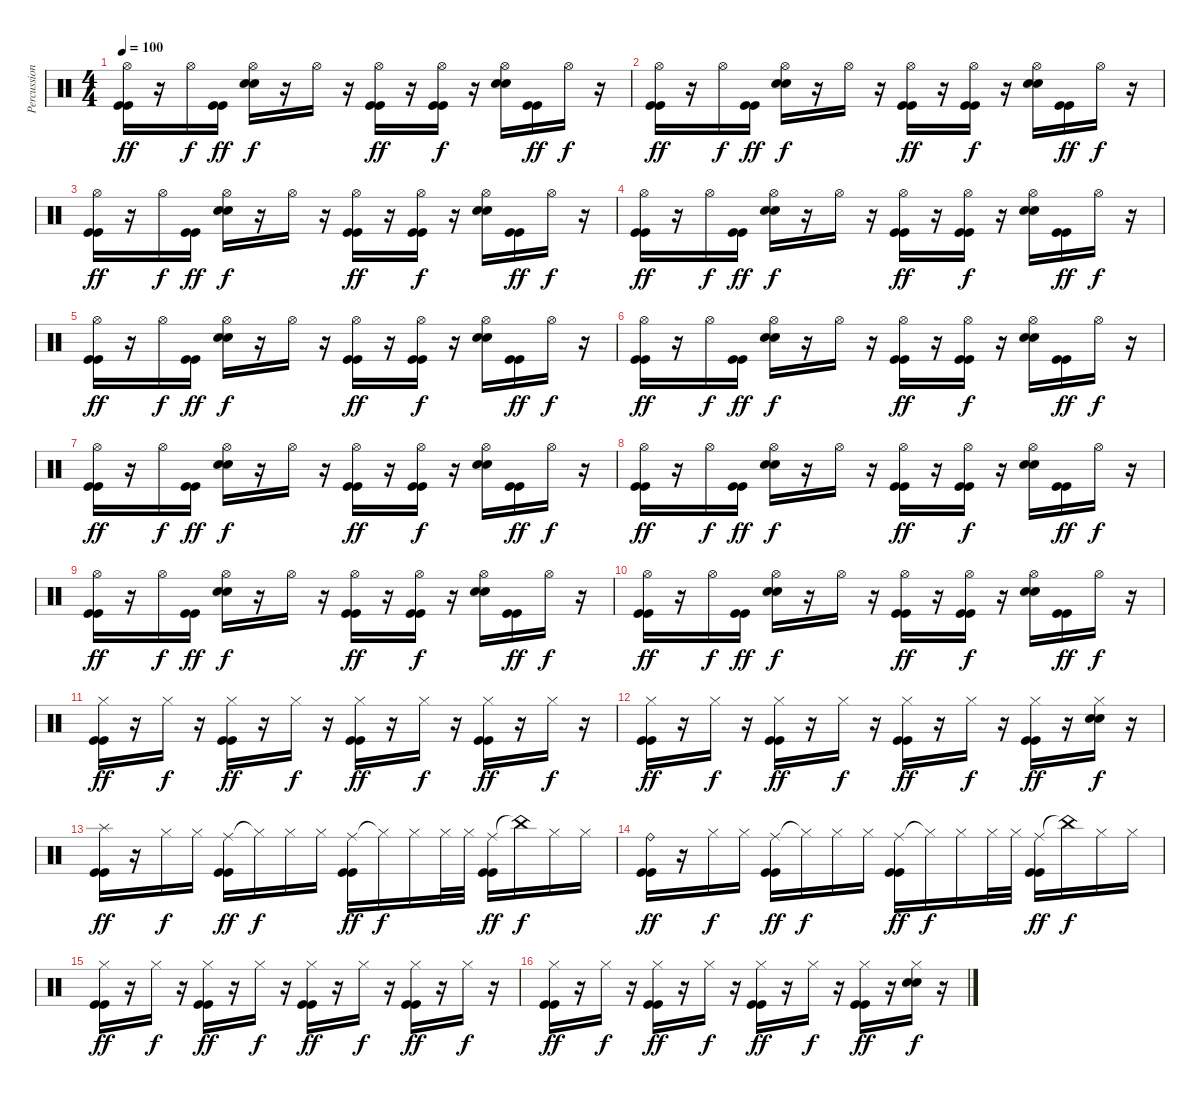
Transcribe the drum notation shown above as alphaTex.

\track ("Percussions" "Percussion") {instrument percussion}
\staff {score}
\articulation defaults
\ts (4 4)
\tempo 100
\clef neutral
\ks c
("Hi-Hat (open)" "Kick (hit)" "Kick (hit)").16{dy ff} r.16 "Hi-Hat (open)".16{dy f} ("Kick (hit)" "Kick (hit)").16{dy ff} ("Hi-Hat (open)" "Electric Snare (hit)" "Electric Snare (hit)").16{dy f} r.16 "Hi-Hat (open)".16 r.16 ("Hi-Hat (open)" "Kick (hit)" "Kick (hit)").16{dy ff} r.16 ("Hi-Hat (open)" "Kick (hit)" "Kick (hit)").16{dy f} r.16 ("Hi-Hat (open)" "Electric Snare (hit)" "Electric Snare (hit)").16 ("Kick (hit)" "Kick (hit)").16{dy ff} "Hi-Hat (open)".16{dy f} r.16 |
("Hi-Hat (open)" "Kick (hit)" "Kick (hit)").16{dy ff} r.16 "Hi-Hat (open)".16{dy f} ("Kick (hit)" "Kick (hit)").16{dy ff} ("Hi-Hat (open)" "Electric Snare (hit)" "Electric Snare (hit)").16{dy f} r.16 "Hi-Hat (open)".16 r.16 ("Hi-Hat (open)" "Kick (hit)" "Kick (hit)").16{dy ff} r.16 ("Hi-Hat (open)" "Kick (hit)" "Kick (hit)").16{dy f} r.16 ("Hi-Hat (open)" "Electric Snare (hit)" "Electric Snare (hit)").16 ("Kick (hit)" "Kick (hit)").16{dy ff} "Hi-Hat (open)".16{dy f} r.16 |
("Hi-Hat (open)" "Kick (hit)" "Kick (hit)").16{dy ff} r.16 "Hi-Hat (open)".16{dy f} ("Kick (hit)" "Kick (hit)").16{dy ff} ("Hi-Hat (open)" "Electric Snare (hit)" "Electric Snare (hit)").16{dy f} r.16 "Hi-Hat (open)".16 r.16 ("Hi-Hat (open)" "Kick (hit)" "Kick (hit)").16{dy ff} r.16 ("Hi-Hat (open)" "Kick (hit)" "Kick (hit)").16{dy f} r.16 ("Hi-Hat (open)" "Electric Snare (hit)" "Electric Snare (hit)").16 ("Kick (hit)" "Kick (hit)").16{dy ff} "Hi-Hat (open)".16{dy f} r.16 |
("Hi-Hat (open)" "Kick (hit)" "Kick (hit)").16{dy ff} r.16 "Hi-Hat (open)".16{dy f} ("Kick (hit)" "Kick (hit)").16{dy ff} ("Hi-Hat (open)" "Electric Snare (hit)" "Electric Snare (hit)").16{dy f} r.16 "Hi-Hat (open)".16 r.16 ("Hi-Hat (open)" "Kick (hit)" "Kick (hit)").16{dy ff} r.16 ("Hi-Hat (open)" "Kick (hit)" "Kick (hit)").16{dy f} r.16 ("Hi-Hat (open)" "Electric Snare (hit)" "Electric Snare (hit)").16 ("Kick (hit)" "Kick (hit)").16{dy ff} "Hi-Hat (open)".16{dy f} r.16 |
("Hi-Hat (open)" "Kick (hit)" "Kick (hit)").16{dy ff} r.16 "Hi-Hat (open)".16{dy f} ("Kick (hit)" "Kick (hit)").16{dy ff} ("Hi-Hat (open)" "Electric Snare (hit)" "Electric Snare (hit)").16{dy f} r.16 "Hi-Hat (open)".16 r.16 ("Hi-Hat (open)" "Kick (hit)" "Kick (hit)").16{dy ff} r.16 ("Hi-Hat (open)" "Kick (hit)" "Kick (hit)").16{dy f} r.16 ("Hi-Hat (open)" "Electric Snare (hit)" "Electric Snare (hit)").16 ("Kick (hit)" "Kick (hit)").16{dy ff} "Hi-Hat (open)".16{dy f} r.16 |
("Hi-Hat (open)" "Kick (hit)" "Kick (hit)").16{dy ff} r.16 "Hi-Hat (open)".16{dy f} ("Kick (hit)" "Kick (hit)").16{dy ff} ("Hi-Hat (open)" "Electric Snare (hit)" "Electric Snare (hit)").16{dy f} r.16 "Hi-Hat (open)".16 r.16 ("Hi-Hat (open)" "Kick (hit)" "Kick (hit)").16{dy ff} r.16 ("Hi-Hat (open)" "Kick (hit)" "Kick (hit)").16{dy f} r.16 ("Hi-Hat (open)" "Electric Snare (hit)" "Electric Snare (hit)").16 ("Kick (hit)" "Kick (hit)").16{dy ff} "Hi-Hat (open)".16{dy f} r.16 |
("Hi-Hat (open)" "Kick (hit)" "Kick (hit)").16{dy ff} r.16 "Hi-Hat (open)".16{dy f} ("Kick (hit)" "Kick (hit)").16{dy ff} ("Hi-Hat (open)" "Electric Snare (hit)" "Electric Snare (hit)").16{dy f} r.16 "Hi-Hat (open)".16 r.16 ("Hi-Hat (open)" "Kick (hit)" "Kick (hit)").16{dy ff} r.16 ("Hi-Hat (open)" "Kick (hit)" "Kick (hit)").16{dy f} r.16 ("Hi-Hat (open)" "Electric Snare (hit)" "Electric Snare (hit)").16 ("Kick (hit)" "Kick (hit)").16{dy ff} "Hi-Hat (open)".16{dy f} r.16 |
("Hi-Hat (open)" "Kick (hit)" "Kick (hit)").16{dy ff} r.16 "Hi-Hat (open)".16{dy f} ("Kick (hit)" "Kick (hit)").16{dy ff} ("Hi-Hat (open)" "Electric Snare (hit)" "Electric Snare (hit)").16{dy f} r.16 "Hi-Hat (open)".16 r.16 ("Hi-Hat (open)" "Kick (hit)" "Kick (hit)").16{dy ff} r.16 ("Hi-Hat (open)" "Kick (hit)" "Kick (hit)").16{dy f} r.16 ("Hi-Hat (open)" "Electric Snare (hit)" "Electric Snare (hit)").16 ("Kick (hit)" "Kick (hit)").16{dy ff} "Hi-Hat (open)".16{dy f} r.16 |
("Hi-Hat (open)" "Kick (hit)" "Kick (hit)").16{dy ff} r.16 "Hi-Hat (open)".16{dy f} ("Kick (hit)" "Kick (hit)").16{dy ff} ("Hi-Hat (open)" "Electric Snare (hit)" "Electric Snare (hit)").16{dy f} r.16 "Hi-Hat (open)".16 r.16 ("Hi-Hat (open)" "Kick (hit)" "Kick (hit)").16{dy ff} r.16 ("Hi-Hat (open)" "Kick (hit)" "Kick (hit)").16{dy f} r.16 ("Hi-Hat (open)" "Electric Snare (hit)" "Electric Snare (hit)").16 ("Kick (hit)" "Kick (hit)").16{dy ff} "Hi-Hat (open)".16{dy f} r.16 |
("Hi-Hat (open)" "Kick (hit)" "Kick (hit)").16{dy ff} r.16 "Hi-Hat (open)".16{dy f} ("Kick (hit)" "Kick (hit)").16{dy ff} ("Hi-Hat (open)" "Electric Snare (hit)" "Electric Snare (hit)").16{dy f} r.16 "Hi-Hat (open)".16 r.16 ("Hi-Hat (open)" "Kick (hit)" "Kick (hit)").16{dy ff} r.16 ("Hi-Hat (open)" "Kick (hit)" "Kick (hit)").16{dy f} r.16 ("Hi-Hat (open)" "Electric Snare (hit)" "Electric Snare (hit)").16 ("Kick (hit)" "Kick (hit)").16{dy ff} "Hi-Hat (open)".16{dy f} r.16 |
("Hi-Hat (closed)" "Kick (hit)" "Kick (hit)").16{dy ff} r.16 "Hi-Hat (closed)".16{dy f} r.16 ("Hi-Hat (closed)" "Kick (hit)" "Kick (hit)").16{dy ff} r.16 "Hi-Hat (closed)".16{dy f} r.16 ("Hi-Hat (closed)" "Kick (hit)" "Kick (hit)").16{dy ff} r.16 "Hi-Hat (closed)".16{dy f} r.16 ("Hi-Hat (closed)" "Kick (hit)" "Kick (hit)").16{dy ff} r.16 "Hi-Hat (closed)".16{dy f} r.16 |
("Hi-Hat (closed)" "Kick (hit)" "Kick (hit)").16{dy ff} r.16 "Hi-Hat (closed)".16{dy f} r.16 ("Hi-Hat (closed)" "Kick (hit)" "Kick (hit)").16{dy ff} r.16 "Hi-Hat (closed)".16{dy f} r.16 ("Hi-Hat (closed)" "Kick (hit)" "Kick (hit)").16{dy ff} r.16 "Hi-Hat (closed)".16{dy f} r.16 ("Hi-Hat (closed)" "Kick (hit)" "Kick (hit)").16{dy ff} r.16 ("Hi-Hat (closed)" "Electric Snare (hit)" "Electric Snare (hit)").16{dy f} r.16 |
("Splash (hit)" "Kick (hit)" "Kick (hit)").16{dy ff} r.16 "Hi-Hat (closed)".16{dy f} "Hi-Hat (closed)".16 ("Ride (middle)" "Kick (hit)" "Kick (hit)").16{dy ff} "Hi-Hat (closed)"{t}.16{dy f} "Hi-Hat (closed)".16 "Hi-Hat (closed)".16 ("Ride (middle)" "Kick (hit)" "Kick (hit)").16{dy ff} "Hi-Hat (closed)"{t}.16{dy f} "Hi-Hat (closed)".16 "Hi-Hat (closed)".32 "Hi-Hat (closed)".32 ("Ride (middle)" "Kick (hit)" "Kick (hit)").16{dy ff} "China (hit)"{t}.16{dy f} "Hi-Hat (closed)".16 "Hi-Hat (closed)".16 |
("Ride (bell)" "Kick (hit)" "Kick (hit)").16{dy ff} r.16 "Hi-Hat (closed)".16{dy f} "Hi-Hat (closed)".16 ("Ride (middle)" "Kick (hit)" "Kick (hit)").16{dy ff} "Hi-Hat (closed)"{t}.16{dy f} "Hi-Hat (closed)".16 "Hi-Hat (closed)".16 ("Ride (middle)" "Kick (hit)" "Kick (hit)").16{dy ff} "Hi-Hat (closed)"{t}.16{dy f} "Hi-Hat (closed)".16 "Hi-Hat (closed)".32 "Hi-Hat (closed)".32 ("Ride (middle)" "Kick (hit)" "Kick (hit)").16{dy ff} "China (hit)"{t}.16{dy f} "Hi-Hat (closed)".16 "Hi-Hat (closed)".16 |
("Hi-Hat (closed)" "Kick (hit)" "Kick (hit)").16{dy ff} r.16 "Hi-Hat (closed)".16{dy f} r.16 ("Hi-Hat (closed)" "Kick (hit)" "Kick (hit)").16{dy ff} r.16 "Hi-Hat (closed)".16{dy f} r.16 ("Hi-Hat (closed)" "Kick (hit)" "Kick (hit)").16{dy ff} r.16 "Hi-Hat (closed)".16{dy f} r.16 ("Hi-Hat (closed)" "Kick (hit)" "Kick (hit)").16{dy ff} r.16 "Hi-Hat (closed)".16{dy f} r.16 |
("Hi-Hat (closed)" "Kick (hit)" "Kick (hit)").16{dy ff} r.16 "Hi-Hat (closed)".16{dy f} r.16 ("Hi-Hat (closed)" "Kick (hit)" "Kick (hit)").16{dy ff} r.16 "Hi-Hat (closed)".16{dy f} r.16 ("Hi-Hat (closed)" "Kick (hit)" "Kick (hit)").16{dy ff} r.16 "Hi-Hat (closed)".16{dy f} r.16 ("Hi-Hat (closed)" "Kick (hit)" "Kick (hit)").16{dy ff} r.16 ("Hi-Hat (closed)" "Electric Snare (hit)" "Electric Snare (hit)").16{dy f} r.16
